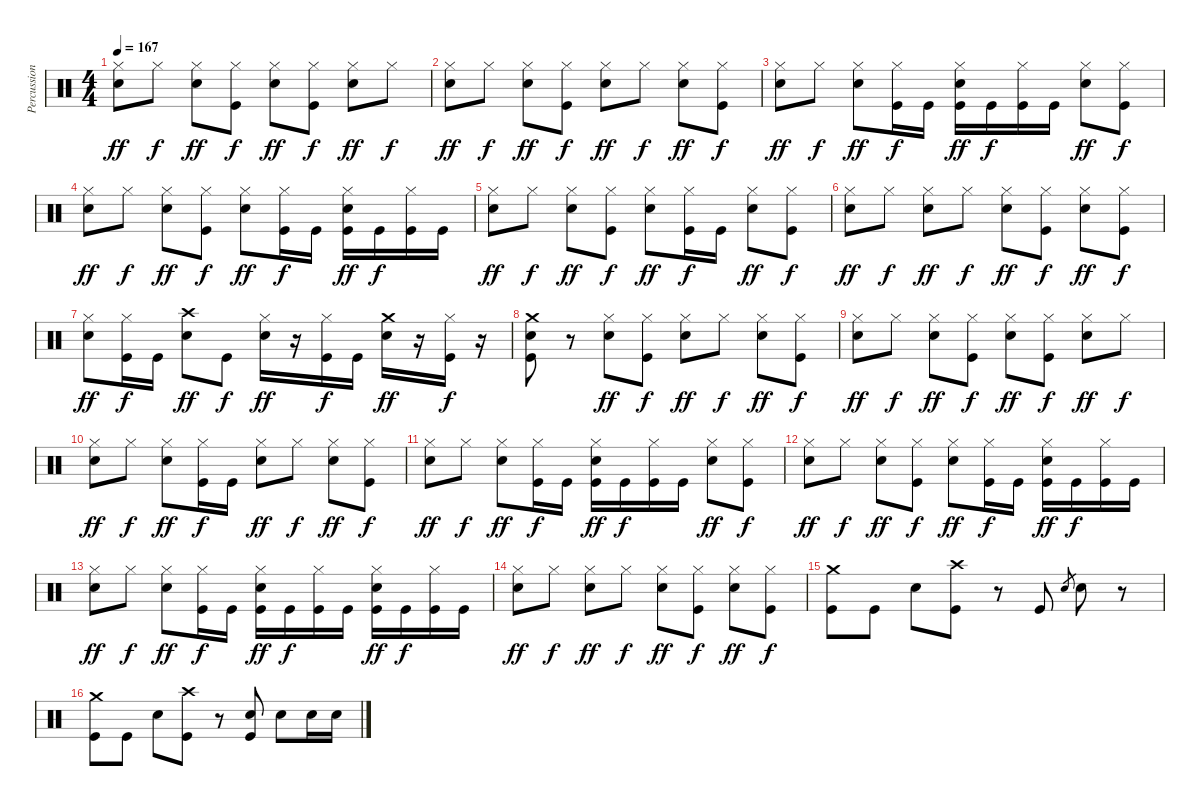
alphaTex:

\track ("Percussion" "Percussion") {instrument percussion}
\staff {score}
\articulation defaults
\ts (4 4)
\tempo 167
\clef neutral
\ks c
("Hi-Hat (closed)" "Electric Snare (hit)").8{dy ff} "Hi-Hat (closed)".8{dy f} ("Hi-Hat (closed)" "Electric Snare (hit)").8{dy ff} ("Hi-Hat (closed)" "Kick (hit)").8{dy f} ("Hi-Hat (closed)" "Electric Snare (hit)").8{dy ff} ("Hi-Hat (closed)" "Kick (hit)").8{dy f} ("Hi-Hat (closed)" "Electric Snare (hit)").8{dy ff} "Hi-Hat (closed)".8{dy f} |
("Hi-Hat (closed)" "Electric Snare (hit)").8{dy ff} "Hi-Hat (closed)".8{dy f} ("Hi-Hat (closed)" "Electric Snare (hit)").8{dy ff} ("Hi-Hat (closed)" "Kick (hit)").8{dy f} ("Hi-Hat (closed)" "Electric Snare (hit)").8{dy ff} "Hi-Hat (closed)".8{dy f} ("Hi-Hat (closed)" "Electric Snare (hit)").8{dy ff} ("Hi-Hat (closed)" "Kick (hit)").8{dy f} |
("Hi-Hat (closed)" "Electric Snare (hit)").8{dy ff} "Hi-Hat (closed)".8{dy f} ("Hi-Hat (closed)" "Electric Snare (hit)").8{dy ff} ("Hi-Hat (closed)" "Kick (hit)").16{dy f} "Kick (hit)".16 ("Hi-Hat (closed)" "Kick (hit)" "Electric Snare (hit)").16{dy ff} "Kick (hit)".16{dy f} ("Hi-Hat (closed)" "Kick (hit)").16 "Kick (hit)".16 ("Hi-Hat (closed)" "Electric Snare (hit)").8{dy ff} ("Hi-Hat (closed)" "Kick (hit)").8{dy f} |
("Hi-Hat (closed)" "Electric Snare (hit)").8{dy ff} "Hi-Hat (closed)".8{dy f} ("Hi-Hat (closed)" "Electric Snare (hit)").8{dy ff} ("Hi-Hat (closed)" "Kick (hit)").8{dy f} ("Hi-Hat (closed)" "Electric Snare (hit)").8{dy ff} ("Hi-Hat (closed)" "Kick (hit)").16{dy f} "Kick (hit)".16 ("Hi-Hat (closed)" "Kick (hit)" "Electric Snare (hit)").16{dy ff} "Kick (hit)".16{dy f} ("Hi-Hat (closed)" "Kick (hit)").16 "Kick (hit)".16 |
("Hi-Hat (closed)" "Electric Snare (hit)").8{dy ff} "Hi-Hat (closed)".8{dy f} ("Hi-Hat (closed)" "Electric Snare (hit)").8{dy ff} ("Hi-Hat (closed)" "Kick (hit)").8{dy f} ("Hi-Hat (closed)" "Electric Snare (hit)").8{dy ff} ("Hi-Hat (closed)" "Kick (hit)").16{dy f} "Kick (hit)".16 ("Hi-Hat (closed)" "Electric Snare (hit)").8{dy ff} ("Hi-Hat (closed)" "Kick (hit)").8{dy f} |
("Hi-Hat (closed)" "Electric Snare (hit)").8{dy ff} "Hi-Hat (closed)".8{dy f} ("Hi-Hat (closed)" "Electric Snare (hit)").8{dy ff} "Hi-Hat (closed)".8{dy f} ("Hi-Hat (closed)" "Electric Snare (hit)").8{dy ff} ("Hi-Hat (closed)" "Kick (hit)").8{dy f} ("Hi-Hat (closed)" "Electric Snare (hit)").8{dy ff} ("Hi-Hat (closed)" "Kick (hit)").8{dy f} |
("Hi-Hat (closed)" "Electric Snare (hit)").8{dy ff} ("Hi-Hat (closed)" "Kick (hit)").16{dy f} "Kick (hit)".16 ("Crash high (hit)" "Electric Snare (hit)").8{dy ff} "Kick (hit)".8{dy f} ("Hi-Hat (closed)" "Electric Snare (hit)").16{dy ff} r.16 ("Hi-Hat (closed)" "Kick (hit)").16{dy f} "Kick (hit)".16 ("Crash medium (hit)" "Electric Snare (hit)").16{dy ff} r.16 ("Hi-Hat (closed)" "Kick (hit)").16{dy f} r.16 |
("Crash medium (hit)" "Kick (hit)" "Electric Snare (hit)").8 r.8 ("Hi-Hat (closed)" "Electric Snare (hit)").8{dy ff} ("Hi-Hat (closed)" "Kick (hit)").8{dy f} ("Hi-Hat (closed)" "Electric Snare (hit)").8{dy ff} "Hi-Hat (closed)".8{dy f} ("Hi-Hat (closed)" "Electric Snare (hit)").8{dy ff} ("Hi-Hat (closed)" "Kick (hit)").8{dy f} |
("Hi-Hat (closed)" "Electric Snare (hit)").8{dy ff} "Hi-Hat (closed)".8{dy f} ("Hi-Hat (closed)" "Electric Snare (hit)").8{dy ff} ("Hi-Hat (closed)" "Kick (hit)").8{dy f} ("Hi-Hat (closed)" "Electric Snare (hit)").8{dy ff} ("Hi-Hat (closed)" "Kick (hit)").8{dy f} ("Hi-Hat (closed)" "Electric Snare (hit)").8{dy ff} "Hi-Hat (closed)".8{dy f} |
("Hi-Hat (closed)" "Electric Snare (hit)").8{dy ff} "Hi-Hat (closed)".8{dy f} ("Hi-Hat (closed)" "Electric Snare (hit)").8{dy ff} ("Hi-Hat (closed)" "Kick (hit)").16{dy f} "Kick (hit)".16 ("Hi-Hat (closed)" "Electric Snare (hit)").8{dy ff} "Hi-Hat (closed)".8{dy f} ("Hi-Hat (closed)" "Electric Snare (hit)").8{dy ff} ("Hi-Hat (closed)" "Kick (hit)").8{dy f} |
("Hi-Hat (closed)" "Electric Snare (hit)").8{dy ff} "Hi-Hat (closed)".8{dy f} ("Hi-Hat (closed)" "Electric Snare (hit)").8{dy ff} ("Hi-Hat (closed)" "Kick (hit)").16{dy f} "Kick (hit)".16 ("Hi-Hat (closed)" "Kick (hit)" "Electric Snare (hit)").16{dy ff} "Kick (hit)".16{dy f} ("Hi-Hat (closed)" "Kick (hit)").16 "Kick (hit)".16 ("Hi-Hat (closed)" "Electric Snare (hit)").8{dy ff} ("Hi-Hat (closed)" "Kick (hit)").8{dy f} |
("Hi-Hat (closed)" "Electric Snare (hit)").8{dy ff} "Hi-Hat (closed)".8{dy f} ("Hi-Hat (closed)" "Electric Snare (hit)").8{dy ff} ("Hi-Hat (closed)" "Kick (hit)").8{dy f} ("Hi-Hat (closed)" "Electric Snare (hit)").8{dy ff} ("Hi-Hat (closed)" "Kick (hit)").16{dy f} "Kick (hit)".16 ("Hi-Hat (closed)" "Kick (hit)" "Electric Snare (hit)").16{dy ff} "Kick (hit)".16{dy f} ("Hi-Hat (closed)" "Kick (hit)").16 "Kick (hit)".16 |
("Hi-Hat (closed)" "Electric Snare (hit)").8{dy ff} "Hi-Hat (closed)".8{dy f} ("Hi-Hat (closed)" "Electric Snare (hit)").8{dy ff} ("Hi-Hat (closed)" "Kick (hit)").16{dy f} "Kick (hit)".16 ("Hi-Hat (closed)" "Kick (hit)" "Electric Snare (hit)").16{dy ff} "Kick (hit)".16{dy f} ("Hi-Hat (closed)" "Kick (hit)").16 "Kick (hit)".16 ("Hi-Hat (closed)" "Kick (hit)" "Electric Snare (hit)").16{dy ff} "Kick (hit)".16{dy f} ("Hi-Hat (closed)" "Kick (hit)").16 "Kick (hit)".16 |
("Hi-Hat (closed)" "Electric Snare (hit)").8{dy ff} "Hi-Hat (closed)".8{dy f} ("Hi-Hat (closed)" "Electric Snare (hit)").8{dy ff} "Hi-Hat (closed)".8{dy f} ("Hi-Hat (closed)" "Electric Snare (hit)").8{dy ff} ("Hi-Hat (closed)" "Kick (hit)").8{dy f} ("Hi-Hat (closed)" "Electric Snare (hit)").8{dy ff} ("Hi-Hat (closed)" "Kick (hit)").8{dy f} |
("Crash medium (hit)" "Kick (hit)").8 "Kick (hit)".8 "Electric Snare (hit)".8 ("Crash high (hit)" "Kick (hit)").8 r.8 "Kick (hit)".8 "Electric Snare (hit)".8{gr} "Electric Snare (hit)".8 r.8 |
("Crash medium (hit)" "Kick (hit)").8 "Kick (hit)".8 "Electric Snare (hit)".8 ("Crash high (hit)" "Kick (hit)").8 r.8 ("Kick (hit)" "Electric Snare (hit)").8 "Electric Snare (hit)".8 "Electric Snare (hit)".16 "Electric Snare (hit)".16
